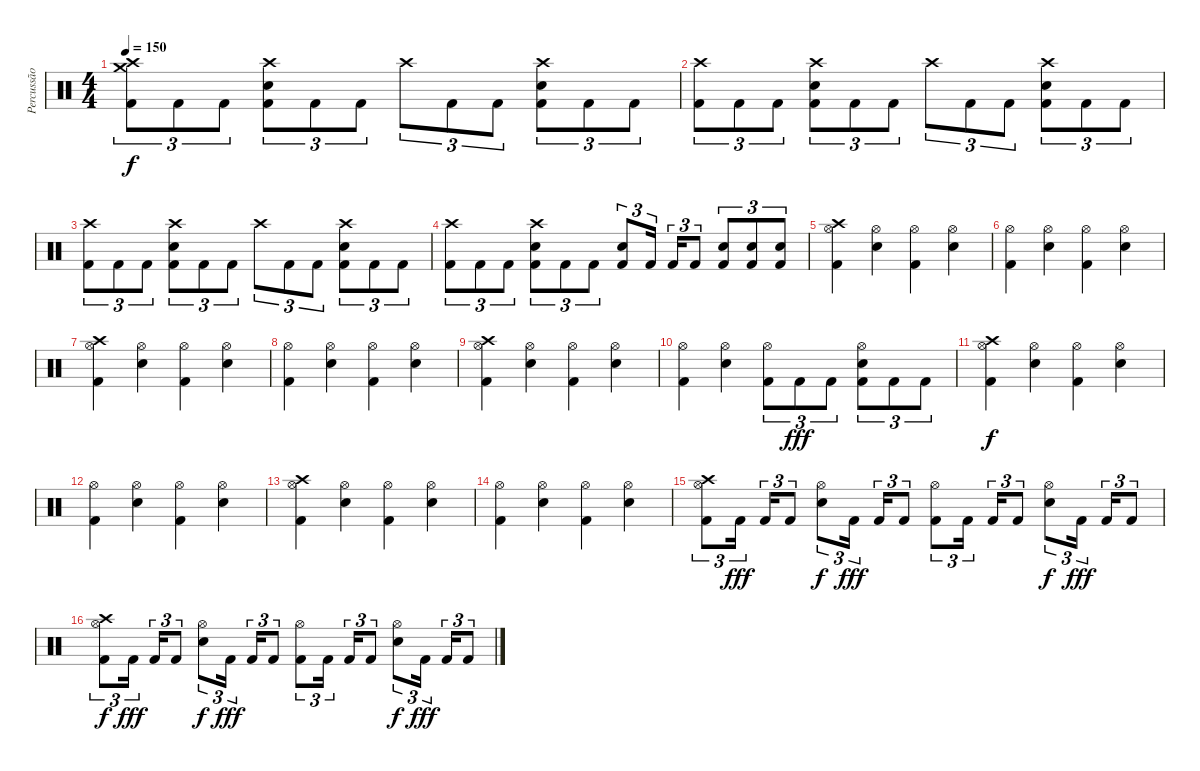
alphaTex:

\track ("Percussão" "Percussão") {instrument percussion}
\staff {score}
\articulation defaults
\ts (4 4)
\tempo 150
\clef neutral
\ks c
("Crash high (hit)" "Crash medium (hit)" "Kick (hit) 2").8{tu (3 2) dy f} "Kick (hit) 2".8{tu (3 2)} "Kick (hit) 2".8{tu (3 2)} ("Crash high (hit)" "Snare (hit) 2" "Kick (hit) 2").8{tu (3 2)} "Kick (hit) 2".8{tu (3 2)} "Kick (hit) 2".8{tu (3 2)} "Crash high (hit)".8{tu (3 2)} "Kick (hit) 2".8{tu (3 2)} "Kick (hit) 2".8{tu (3 2)} ("Crash high (hit)" "Snare (hit) 2" "Kick (hit) 2").8{tu (3 2)} "Kick (hit) 2".8{tu (3 2)} "Kick (hit) 2".8{tu (3 2)} |
("Crash high (hit)" "Kick (hit) 2").8{tu (3 2)} "Kick (hit) 2".8{tu (3 2)} "Kick (hit) 2".8{tu (3 2)} ("Crash high (hit)" "Snare (hit) 2" "Kick (hit) 2").8{tu (3 2)} "Kick (hit) 2".8{tu (3 2)} "Kick (hit) 2".8{tu (3 2)} "Crash high (hit)".8{tu (3 2)} "Kick (hit) 2".8{tu (3 2)} "Kick (hit) 2".8{tu (3 2)} ("Crash high (hit)" "Snare (hit) 2" "Kick (hit) 2").8{tu (3 2)} "Kick (hit) 2".8{tu (3 2)} "Kick (hit) 2".8{tu (3 2)} |
("Crash high (hit)" "Kick (hit) 2").8{tu (3 2)} "Kick (hit) 2".8{tu (3 2)} "Kick (hit) 2".8{tu (3 2)} ("Crash high (hit)" "Snare (hit) 2" "Kick (hit) 2").8{tu (3 2)} "Kick (hit) 2".8{tu (3 2)} "Kick (hit) 2".8{tu (3 2)} "Crash high (hit)".8{tu (3 2)} "Kick (hit) 2".8{tu (3 2)} "Kick (hit) 2".8{tu (3 2)} ("Crash high (hit)" "Snare (hit) 2" "Kick (hit) 2").8{tu (3 2)} "Kick (hit) 2".8{tu (3 2)} "Kick (hit) 2".8{tu (3 2)} |
("Crash high (hit)" "Kick (hit) 2").8{tu (3 2)} "Kick (hit) 2".8{tu (3 2)} "Kick (hit) 2".8{tu (3 2)} ("Crash high (hit)" "Snare (hit) 2" "Kick (hit) 2").8{tu (3 2)} "Kick (hit) 2".8{tu (3 2)} "Kick (hit) 2".8{tu (3 2)} ("Snare (hit) 2" "Kick (hit) 2").8{tu (3 2)} "Kick (hit) 2".16{tu (3 2) beam splitsecondary} "Kick (hit) 2".16{tu (3 2)} "Kick (hit) 2".8{tu (3 2)} ("Snare (hit) 2" "Kick (hit) 2").8{tu (3 2)} ("Snare (hit) 2" "Kick (hit) 2").8{tu (3 2)} ("Snare (hit) 2" "Kick (hit) 2").8{tu (3 2)} |
("Crash high (hit)" "Hi-Hat (open)" "Kick (hit) 2").4 ("Hi-Hat (open)" "Snare (hit) 2").4 ("Hi-Hat (open)" "Kick (hit) 2").4 ("Hi-Hat (open)" "Snare (hit) 2").4 |
("Hi-Hat (open)" "Kick (hit) 2").4 ("Hi-Hat (open)" "Snare (hit) 2").4 ("Hi-Hat (open)" "Kick (hit) 2").4 ("Hi-Hat (open)" "Snare (hit) 2").4 |
("Crash high (hit)" "Hi-Hat (open)" "Kick (hit) 2").4 ("Hi-Hat (open)" "Snare (hit) 2").4 ("Hi-Hat (open)" "Kick (hit) 2").4 ("Hi-Hat (open)" "Snare (hit) 2").4 |
("Hi-Hat (open)" "Kick (hit) 2").4 ("Hi-Hat (open)" "Snare (hit) 2").4 ("Hi-Hat (open)" "Kick (hit) 2").4 ("Hi-Hat (open)" "Snare (hit) 2").4 |
("Crash high (hit)" "Hi-Hat (open)" "Kick (hit) 2").4 ("Hi-Hat (open)" "Snare (hit) 2").4 ("Hi-Hat (open)" "Kick (hit) 2").4 ("Hi-Hat (open)" "Snare (hit) 2").4 |
("Hi-Hat (open)" "Kick (hit) 2").4 ("Hi-Hat (open)" "Snare (hit) 2").4 ("Hi-Hat (open)" "Kick (hit) 2").8{tu (3 2)} "Kick (hit) 2".8{tu (3 2) dy fff} "Kick (hit) 2".8{tu (3 2)} ("Hi-Hat (open)" "Snare (hit) 2" "Kick (hit) 2").8{tu (3 2)} "Kick (hit) 2".8{tu (3 2)} "Kick (hit) 2".8{tu (3 2)} |
("Crash high (hit)" "Hi-Hat (open)" "Kick (hit) 2").4{dy f} ("Hi-Hat (open)" "Snare (hit) 2").4 ("Hi-Hat (open)" "Kick (hit) 2").4 ("Hi-Hat (open)" "Snare (hit) 2").4 |
("Hi-Hat (open)" "Kick (hit) 2").4 ("Hi-Hat (open)" "Snare (hit) 2").4 ("Hi-Hat (open)" "Kick (hit) 2").4 ("Hi-Hat (open)" "Snare (hit) 2").4 |
("Crash high (hit)" "Hi-Hat (open)" "Kick (hit) 2").4 ("Hi-Hat (open)" "Snare (hit) 2").4 ("Hi-Hat (open)" "Kick (hit) 2").4 ("Hi-Hat (open)" "Snare (hit) 2").4 |
("Hi-Hat (open)" "Kick (hit) 2").4 ("Hi-Hat (open)" "Snare (hit) 2").4 ("Hi-Hat (open)" "Kick (hit) 2").4 ("Hi-Hat (open)" "Snare (hit) 2").4 |
("Crash high (hit)" "Hi-Hat (open)" "Kick (hit) 2").8{tu (3 2)} "Kick (hit) 2".16{tu (3 2) dy fff beam splitsecondary} "Kick (hit) 2".16{tu (3 2)} "Kick (hit) 2".8{tu (3 2)} ("Hi-Hat (open)" "Snare (hit) 2").8{tu (3 2) dy f} "Kick (hit) 2".16{tu (3 2) dy fff beam splitsecondary} "Kick (hit) 2".16{tu (3 2)} "Kick (hit) 2".8{tu (3 2)} ("Hi-Hat (open)" "Kick (hit) 2").8{tu (3 2)} "Kick (hit) 2".16{tu (3 2) beam splitsecondary} "Kick (hit) 2".16{tu (3 2)} "Kick (hit) 2".8{tu (3 2)} ("Hi-Hat (open)" "Snare (hit) 2").8{tu (3 2) dy f} "Kick (hit) 2".16{tu (3 2) dy fff beam splitsecondary} "Kick (hit) 2".16{tu (3 2)} "Kick (hit) 2".8{tu (3 2)} |
("Crash high (hit)" "Hi-Hat (open)" "Kick (hit) 2").8{tu (3 2) dy f} "Kick (hit) 2".16{tu (3 2) dy fff beam splitsecondary} "Kick (hit) 2".16{tu (3 2)} "Kick (hit) 2".8{tu (3 2)} ("Hi-Hat (open)" "Snare (hit) 2").8{tu (3 2) dy f} "Kick (hit) 2".16{tu (3 2) dy fff beam splitsecondary} "Kick (hit) 2".16{tu (3 2)} "Kick (hit) 2".8{tu (3 2)} ("Hi-Hat (open)" "Kick (hit) 2").8{tu (3 2)} "Kick (hit) 2".16{tu (3 2) beam splitsecondary} "Kick (hit) 2".16{tu (3 2)} "Kick (hit) 2".8{tu (3 2)} ("Hi-Hat (open)" "Snare (hit) 2").8{tu (3 2) dy f} "Kick (hit) 2".16{tu (3 2) dy fff beam splitsecondary} "Kick (hit) 2".16{tu (3 2)} "Kick (hit) 2".8{tu (3 2)}
